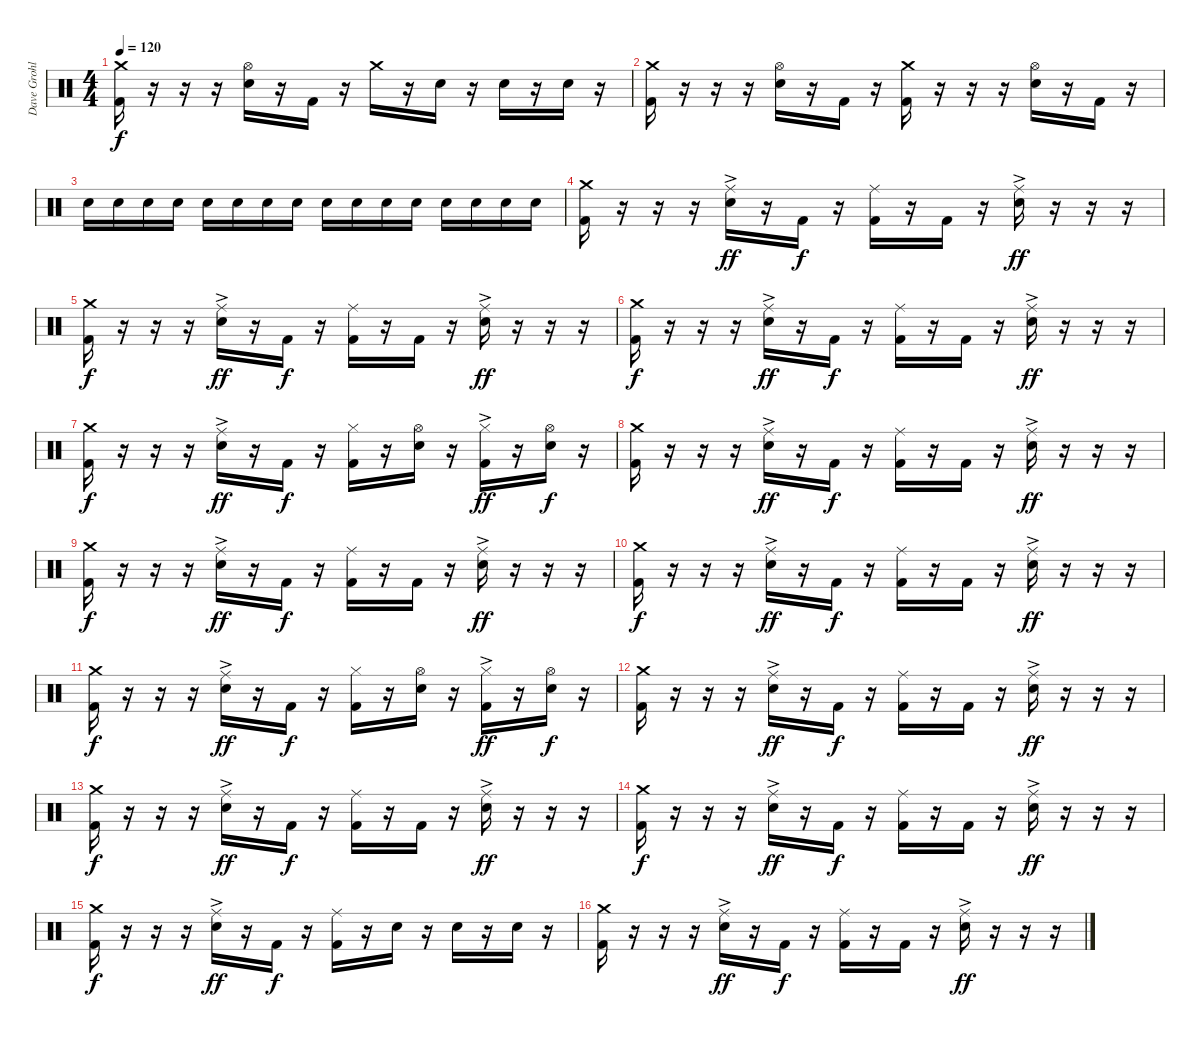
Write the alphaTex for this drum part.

\track ("Dave Grohl" "Dave Grohl") {instrument percussion}
\staff {score}
\articulation defaults
\ts (4 4)
\tempo 120
\clef neutral
\ks c
("Crash medium (hit)" "Kick (hit) 2").16{dy f} r.16 r.16 r.16 ("Hi-Hat (open)" "Electric Snare (hit)").16 r.16 "Kick (hit) 2".16 r.16 "Crash medium (hit)".16 r.16 "Electric Snare (hit)".16 r.16 "Electric Snare (hit)".16 r.16 "Electric Snare (hit)".16 r.16 |
("Crash medium (hit)" "Kick (hit) 2").16 r.16 r.16 r.16 ("Hi-Hat (open)" "Electric Snare (hit)").16 r.16 "Kick (hit) 2".16 r.16 ("Crash medium (hit)" "Kick (hit) 2").16 r.16 r.16 r.16 ("Hi-Hat (open)" "Electric Snare (hit)").16 r.16 "Kick (hit) 2".16 r.16 |
"Electric Snare (hit)".16 "Electric Snare (hit)".16 "Electric Snare (hit)".16 "Electric Snare (hit)".16 "Electric Snare (hit)".16 "Electric Snare (hit)".16 "Electric Snare (hit)".16 "Electric Snare (hit)".16 "Electric Snare (hit)".16 "Electric Snare (hit)".16 "Electric Snare (hit)".16 "Electric Snare (hit)".16 "Electric Snare (hit)".16 "Electric Snare (hit)".16 "Electric Snare (hit)".16 "Electric Snare (hit)".16 |
("Crash medium (hit)" "Kick (hit) 2").16 r.16 r.16 r.16 ("Ride (middle)"{ac} "Electric Snare (hit)").16{dy ff} r.16 "Kick (hit) 2".16{dy f} r.16 ("Ride (middle)" "Kick (hit) 2").16 r.16 "Kick (hit) 2".16 r.16 ("Ride (middle)"{ac} "Electric Snare (hit)").16{dy ff} r.16 r.16 r.16 |
("Crash medium (hit)" "Kick (hit) 2").16{dy f} r.16 r.16 r.16 ("Ride (middle)"{ac} "Electric Snare (hit)").16{dy ff} r.16 "Kick (hit) 2".16{dy f} r.16 ("Ride (middle)" "Kick (hit) 2").16 r.16 "Kick (hit) 2".16 r.16 ("Ride (middle)"{ac} "Electric Snare (hit)").16{dy ff} r.16 r.16 r.16 |
("Crash medium (hit)" "Kick (hit) 2").16{dy f} r.16 r.16 r.16 ("Ride (middle)"{ac} "Electric Snare (hit)").16{dy ff} r.16 "Kick (hit) 2".16{dy f} r.16 ("Ride (middle)" "Kick (hit) 2").16 r.16 "Kick (hit) 2".16 r.16 ("Ride (middle)"{ac} "Electric Snare (hit)").16{dy ff} r.16 r.16 r.16 |
("Crash medium (hit)" "Kick (hit) 2").16{dy f} r.16 r.16 r.16 ("Ride (middle)"{ac} "Electric Snare (hit)").16{dy ff} r.16 "Kick (hit) 2".16{dy f} r.16 ("Hi-Hat (closed)" "Kick (hit) 2").16 r.16 ("Hi-Hat (open)" "Electric Snare (hit)").16 r.16 ("Hi-Hat (closed)"{ac} "Kick (hit) 2").16{dy ff} r.16 ("Hi-Hat (open)" "Electric Snare (hit)").16{dy f} r.16 |
("Crash medium (hit)" "Kick (hit) 2").16 r.16 r.16 r.16 ("Ride (middle)"{ac} "Electric Snare (hit)").16{dy ff} r.16 "Kick (hit) 2".16{dy f} r.16 ("Ride (middle)" "Kick (hit) 2").16 r.16 "Kick (hit) 2".16 r.16 ("Ride (middle)"{ac} "Electric Snare (hit)").16{dy ff} r.16 r.16 r.16 |
("Crash medium (hit)" "Kick (hit) 2").16{dy f} r.16 r.16 r.16 ("Ride (middle)"{ac} "Electric Snare (hit)").16{dy ff} r.16 "Kick (hit) 2".16{dy f} r.16 ("Ride (middle)" "Kick (hit) 2").16 r.16 "Kick (hit) 2".16 r.16 ("Ride (middle)"{ac} "Electric Snare (hit)").16{dy ff} r.16 r.16 r.16 |
("Crash medium (hit)" "Kick (hit) 2").16{dy f} r.16 r.16 r.16 ("Ride (middle)"{ac} "Electric Snare (hit)").16{dy ff} r.16 "Kick (hit) 2".16{dy f} r.16 ("Ride (middle)" "Kick (hit) 2").16 r.16 "Kick (hit) 2".16 r.16 ("Ride (middle)"{ac} "Electric Snare (hit)").16{dy ff} r.16 r.16 r.16 |
("Crash medium (hit)" "Kick (hit) 2").16{dy f} r.16 r.16 r.16 ("Ride (middle)"{ac} "Electric Snare (hit)").16{dy ff} r.16 "Kick (hit) 2".16{dy f} r.16 ("Hi-Hat (closed)" "Kick (hit) 2").16 r.16 ("Hi-Hat (open)" "Electric Snare (hit)").16 r.16 ("Hi-Hat (closed)"{ac} "Kick (hit) 2").16{dy ff} r.16 ("Hi-Hat (open)" "Electric Snare (hit)").16{dy f} r.16 |
("Crash medium (hit)" "Kick (hit) 2").16 r.16 r.16 r.16 ("Ride (middle)"{ac} "Electric Snare (hit)").16{dy ff} r.16 "Kick (hit) 2".16{dy f} r.16 ("Ride (middle)" "Kick (hit) 2").16 r.16 "Kick (hit) 2".16 r.16 ("Ride (middle)"{ac} "Electric Snare (hit)").16{dy ff} r.16 r.16 r.16 |
("Crash medium (hit)" "Kick (hit) 2").16{dy f} r.16 r.16 r.16 ("Ride (middle)"{ac} "Electric Snare (hit)").16{dy ff} r.16 "Kick (hit) 2".16{dy f} r.16 ("Ride (middle)" "Kick (hit) 2").16 r.16 "Kick (hit) 2".16 r.16 ("Ride (middle)"{ac} "Electric Snare (hit)").16{dy ff} r.16 r.16 r.16 |
("Crash medium (hit)" "Kick (hit) 2").16{dy f} r.16 r.16 r.16 ("Ride (middle)"{ac} "Electric Snare (hit)").16{dy ff} r.16 "Kick (hit) 2".16{dy f} r.16 ("Ride (middle)" "Kick (hit) 2").16 r.16 "Kick (hit) 2".16 r.16 ("Ride (middle)"{ac} "Electric Snare (hit)").16{dy ff} r.16 r.16 r.16 |
("Crash medium (hit)" "Kick (hit) 2").16{dy f} r.16 r.16 r.16 ("Ride (middle)"{ac} "Electric Snare (hit)").16{dy ff} r.16 "Kick (hit) 2".16{dy f} r.16 ("Ride (middle)" "Kick (hit) 2").16 r.16 "Electric Snare (hit)".16 r.16 "Electric Snare (hit)".16 r.16 "Electric Snare (hit)".16 r.16 |
("Crash medium (hit)" "Kick (hit) 2").16 r.16 r.16 r.16 ("Ride (middle)"{ac} "Electric Snare (hit)").16{dy ff} r.16 "Kick (hit) 2".16{dy f} r.16 ("Ride (middle)" "Kick (hit) 2").16 r.16 "Kick (hit) 2".16 r.16 ("Ride (middle)"{ac} "Electric Snare (hit)").16{dy ff} r.16 r.16 r.16
